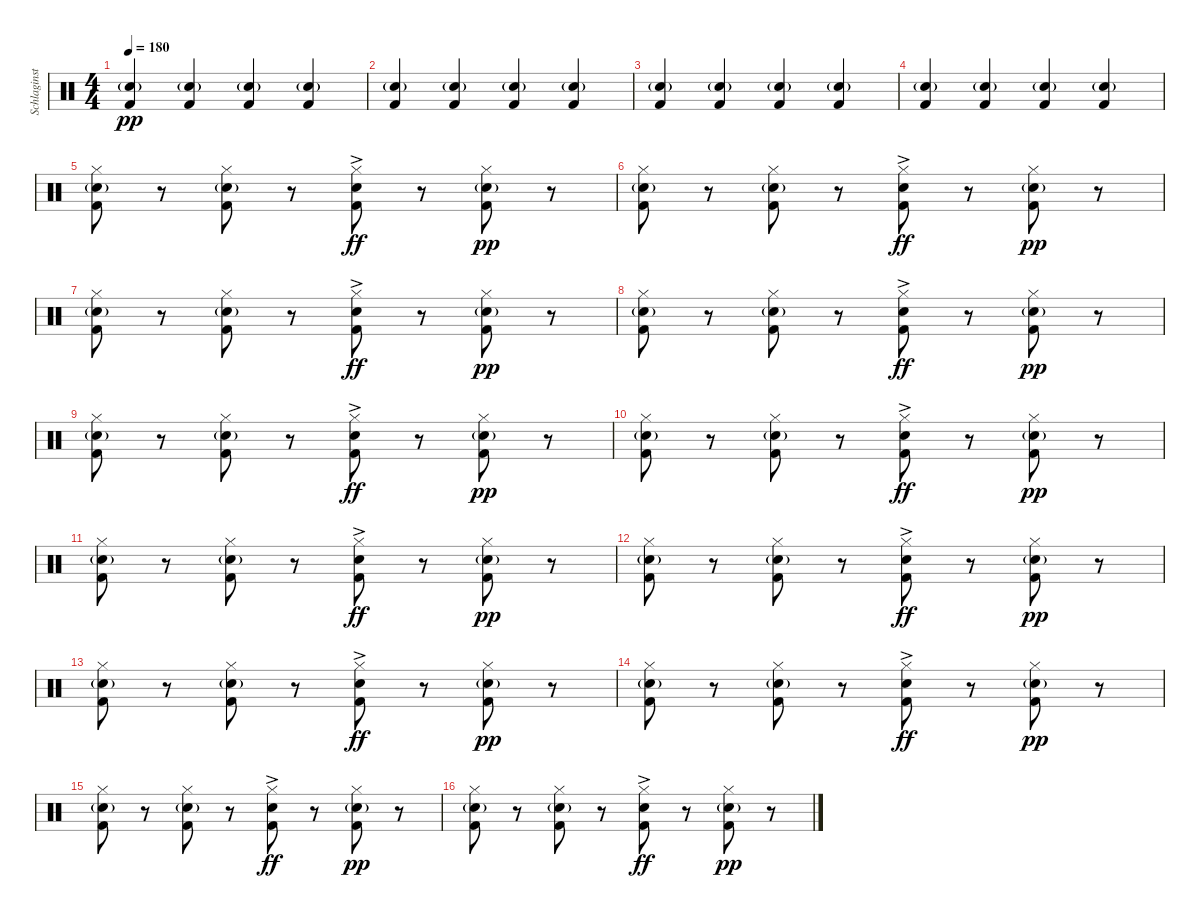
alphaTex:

\track ("Schlaginstrumente - Auswahl" "Schlaginst") {instrument percussion}
\staff {score}
\articulation defaults
\ts (4 4)
\tempo 180
\clef neutral
\ks c
("Electric Snare (hit)"{g} "Kick (hit) 2").4{dy pp} ("Electric Snare (hit)"{g} "Kick (hit) 2").4 ("Electric Snare (hit)"{g} "Kick (hit) 2").4 ("Electric Snare (hit)"{g} "Kick (hit) 2").4 |
("Electric Snare (hit)"{g} "Kick (hit) 2").4 ("Electric Snare (hit)"{g} "Kick (hit) 2").4 ("Electric Snare (hit)"{g} "Kick (hit) 2").4 ("Electric Snare (hit)"{g} "Kick (hit) 2").4 |
("Electric Snare (hit)"{g} "Kick (hit) 2").4 ("Electric Snare (hit)"{g} "Kick (hit) 2").4 ("Electric Snare (hit)"{g} "Kick (hit) 2").4 ("Electric Snare (hit)"{g} "Kick (hit) 2").4 |
("Electric Snare (hit)"{g} "Kick (hit) 2").4 ("Electric Snare (hit)"{g} "Kick (hit) 2").4 ("Electric Snare (hit)"{g} "Kick (hit) 2").4 ("Electric Snare (hit)"{g} "Kick (hit) 2").4 |
("Hi-Hat (closed)" "Electric Snare (hit)"{g} "Kick (hit) 2").8 r.8 ("Hi-Hat (closed)" "Electric Snare (hit)"{g} "Kick (hit) 2").8 r.8 ("Hi-Hat (closed)" "Electric Snare (hit)"{ac} "Kick (hit) 2").8{dy ff} r.8 ("Hi-Hat (closed)" "Electric Snare (hit)"{g} "Kick (hit) 2").8{dy pp} r.8 |
("Hi-Hat (closed)" "Electric Snare (hit)"{g} "Kick (hit) 2").8 r.8 ("Hi-Hat (closed)" "Electric Snare (hit)"{g} "Kick (hit) 2").8 r.8 ("Hi-Hat (closed)" "Electric Snare (hit)"{ac} "Kick (hit) 2").8{dy ff} r.8 ("Hi-Hat (closed)" "Electric Snare (hit)"{g} "Kick (hit) 2").8{dy pp} r.8 |
("Hi-Hat (closed)" "Electric Snare (hit)"{g} "Kick (hit) 2").8 r.8 ("Hi-Hat (closed)" "Electric Snare (hit)"{g} "Kick (hit) 2").8 r.8 ("Hi-Hat (closed)" "Electric Snare (hit)"{ac} "Kick (hit) 2").8{dy ff} r.8 ("Hi-Hat (closed)" "Electric Snare (hit)"{g} "Kick (hit) 2").8{dy pp} r.8 |
("Hi-Hat (closed)" "Electric Snare (hit)"{g} "Kick (hit) 2").8 r.8 ("Hi-Hat (closed)" "Electric Snare (hit)"{g} "Kick (hit) 2").8 r.8 ("Hi-Hat (closed)" "Electric Snare (hit)"{ac} "Kick (hit) 2").8{dy ff} r.8 ("Hi-Hat (closed)" "Electric Snare (hit)"{g} "Kick (hit) 2").8{dy pp} r.8 |
("Hi-Hat (closed)" "Electric Snare (hit)"{g} "Kick (hit) 2").8 r.8 ("Hi-Hat (closed)" "Electric Snare (hit)"{g} "Kick (hit) 2").8 r.8 ("Hi-Hat (closed)" "Electric Snare (hit)"{ac} "Kick (hit) 2").8{dy ff} r.8 ("Hi-Hat (closed)" "Electric Snare (hit)"{g} "Kick (hit) 2").8{dy pp} r.8 |
("Hi-Hat (closed)" "Electric Snare (hit)"{g} "Kick (hit) 2").8 r.8 ("Hi-Hat (closed)" "Electric Snare (hit)"{g} "Kick (hit) 2").8 r.8 ("Hi-Hat (closed)" "Electric Snare (hit)"{ac} "Kick (hit) 2").8{dy ff} r.8 ("Hi-Hat (closed)" "Electric Snare (hit)"{g} "Kick (hit) 2").8{dy pp} r.8 |
("Hi-Hat (closed)" "Electric Snare (hit)"{g} "Kick (hit) 2").8 r.8 ("Hi-Hat (closed)" "Electric Snare (hit)"{g} "Kick (hit) 2").8 r.8 ("Hi-Hat (closed)" "Electric Snare (hit)"{ac} "Kick (hit) 2").8{dy ff} r.8 ("Hi-Hat (closed)" "Electric Snare (hit)"{g} "Kick (hit) 2").8{dy pp} r.8 |
("Hi-Hat (closed)" "Electric Snare (hit)"{g} "Kick (hit) 2").8 r.8 ("Hi-Hat (closed)" "Electric Snare (hit)"{g} "Kick (hit) 2").8 r.8 ("Hi-Hat (closed)" "Electric Snare (hit)"{ac} "Kick (hit) 2").8{dy ff} r.8 ("Hi-Hat (closed)" "Electric Snare (hit)"{g} "Kick (hit) 2").8{dy pp} r.8 |
("Hi-Hat (closed)" "Electric Snare (hit)"{g} "Kick (hit) 2").8 r.8 ("Hi-Hat (closed)" "Electric Snare (hit)"{g} "Kick (hit) 2").8 r.8 ("Hi-Hat (closed)" "Electric Snare (hit)"{ac} "Kick (hit) 2").8{dy ff} r.8 ("Hi-Hat (closed)" "Electric Snare (hit)"{g} "Kick (hit) 2").8{dy pp} r.8 |
("Hi-Hat (closed)" "Electric Snare (hit)"{g} "Kick (hit) 2").8 r.8 ("Hi-Hat (closed)" "Electric Snare (hit)"{g} "Kick (hit) 2").8 r.8 ("Hi-Hat (closed)" "Electric Snare (hit)"{ac} "Kick (hit) 2").8{dy ff} r.8 ("Hi-Hat (closed)" "Electric Snare (hit)"{g} "Kick (hit) 2").8{dy pp} r.8 |
("Hi-Hat (closed)" "Electric Snare (hit)"{g} "Kick (hit) 2").8 r.8 ("Hi-Hat (closed)" "Electric Snare (hit)"{g} "Kick (hit) 2").8 r.8 ("Hi-Hat (closed)" "Electric Snare (hit)"{ac} "Kick (hit) 2").8{dy ff} r.8 ("Hi-Hat (closed)" "Electric Snare (hit)"{g} "Kick (hit) 2").8{dy pp} r.8 |
("Hi-Hat (closed)" "Electric Snare (hit)"{g} "Kick (hit) 2").8 r.8 ("Hi-Hat (closed)" "Electric Snare (hit)"{g} "Kick (hit) 2").8 r.8 ("Hi-Hat (closed)" "Electric Snare (hit)"{ac} "Kick (hit) 2").8{dy ff} r.8 ("Hi-Hat (closed)" "Electric Snare (hit)"{g} "Kick (hit) 2").8{dy pp} r.8
